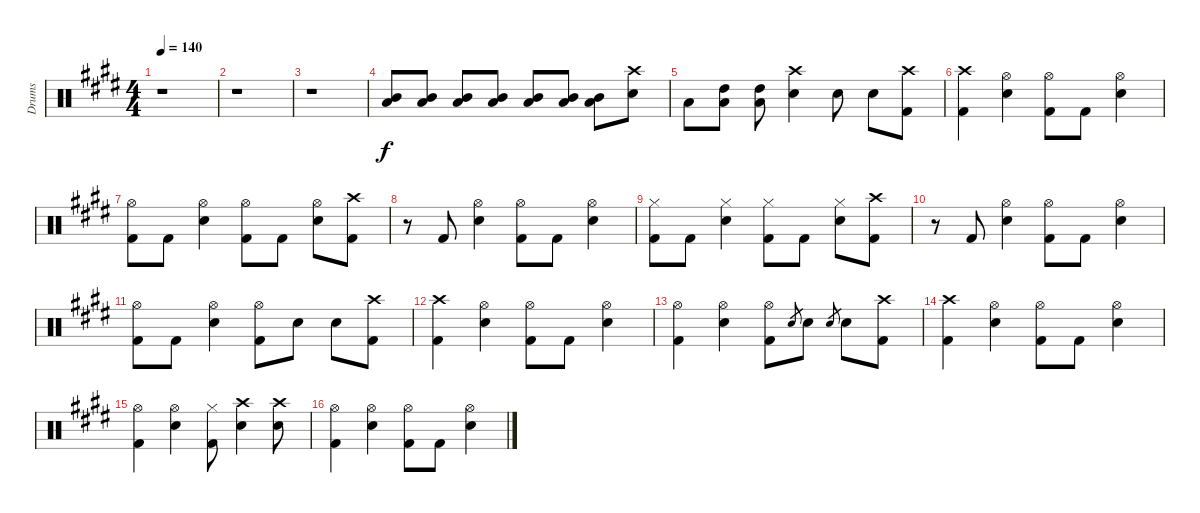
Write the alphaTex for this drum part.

\track ("Drums" "Drums") {instrument percussion}
\staff {score}
\articulation defaults
\ts (4 4)
\tempo 140
\clef neutral
\ks e
r.1{dy f} |
r.1 |
r.1 |
("Mid Tom (hit)" "Low Tom (hit)").8 ("Mid Tom (hit)" "Low Tom (hit)").8 ("Mid Tom (hit)" "Low Tom (hit)").8 ("Mid Tom (hit)" "Low Tom (hit)").8 ("Mid Tom (hit)" "Low Tom (hit)").8 ("Mid Tom (hit)" "Low Tom (hit)").8 ("Mid Tom (hit)" "Low Tom (hit)").8 ("Crash high (hit)" "Electric Snare (hit)").8 |
"Low Tom (hit)".8 ("High Tom (hit)" "Low Tom (hit)").8 ("High Tom (hit)" "Low Tom (hit)").8 ("Crash high (hit)" "Electric Snare (hit)").4 "Electric Snare (hit)".8 "Electric Snare (hit)".8 ("Crash high (hit)" "Kick (hit) 2").8 |
("Crash high (hit)" "Kick (hit) 2").4 ("Hi-Hat (open)" "Electric Snare (hit)").4 ("Hi-Hat (open)" "Kick (hit) 2").8 "Kick (hit) 2".8 ("Hi-Hat (open)" "Electric Snare (hit)").4 |
("Hi-Hat (open)" "Kick (hit) 2").8 "Kick (hit) 2".8 ("Hi-Hat (open)" "Electric Snare (hit)").4 ("Hi-Hat (open)" "Kick (hit) 2").8 "Kick (hit) 2".8 ("Hi-Hat (open)" "Electric Snare (hit)").8 ("Crash high (hit)" "Kick (hit) 2").8 |
r.8 "Kick (hit) 2".8 ("Hi-Hat (open)" "Electric Snare (hit)").4 ("Hi-Hat (open)" "Kick (hit) 2").8 "Kick (hit) 2".8 ("Hi-Hat (open)" "Electric Snare (hit)").4 |
("Hi-Hat (closed)" "Kick (hit) 2").8 "Kick (hit) 2".8 ("Hi-Hat (closed)" "Electric Snare (hit)").4 ("Hi-Hat (closed)" "Kick (hit) 2").8 "Kick (hit) 2".8 ("Hi-Hat (closed)" "Electric Snare (hit)").8 ("Crash high (hit)" "Kick (hit) 2").8 |
r.8 "Kick (hit) 2".8 ("Hi-Hat (open)" "Electric Snare (hit)").4 ("Hi-Hat (open)" "Kick (hit) 2").8 "Kick (hit) 2".8 ("Hi-Hat (open)" "Electric Snare (hit)").4 |
("Hi-Hat (open)" "Kick (hit) 2").8 "Kick (hit) 2".8 ("Hi-Hat (open)" "Electric Snare (hit)").4 ("Hi-Hat (open)" "Kick (hit) 2").8 "Electric Snare (hit)".8 "Electric Snare (hit)".8 ("Crash high (hit)" "Kick (hit) 2").8 |
("Crash high (hit)" "Kick (hit) 2").4 ("Hi-Hat (open)" "Electric Snare (hit)").4 ("Hi-Hat (open)" "Kick (hit) 2").8 "Kick (hit) 2".8 ("Hi-Hat (open)" "Electric Snare (hit)").4 |
("Hi-Hat (open)" "Kick (hit) 2").4 ("Hi-Hat (open)" "Electric Snare (hit)").4 ("Hi-Hat (open)" "Kick (hit) 2").8 "Electric Snare (hit)".8{gr} "Electric Snare (hit)".8 "Electric Snare (hit)".8{gr} "Electric Snare (hit)".8 ("Crash high (hit)" "Kick (hit) 2").8 |
("Crash high (hit)" "Kick (hit) 2").4 ("Hi-Hat (open)" "Electric Snare (hit)").4 ("Hi-Hat (open)" "Kick (hit) 2").8 "Kick (hit) 2".8 ("Hi-Hat (open)" "Electric Snare (hit)").4 |
("Hi-Hat (open)" "Kick (hit) 2").4 ("Hi-Hat (open)" "Electric Snare (hit)").4 ("Hi-Hat (closed)" "Kick (hit) 2").8 ("Crash high (hit)" "Electric Snare (hit)").4 ("Crash high (hit)" "Electric Snare (hit)").8 |
("Hi-Hat (open)" "Kick (hit) 2").4 ("Hi-Hat (open)" "Electric Snare (hit)").4 ("Hi-Hat (open)" "Kick (hit) 2").8 "Kick (hit) 2".8 ("Hi-Hat (open)" "Electric Snare (hit)").4
